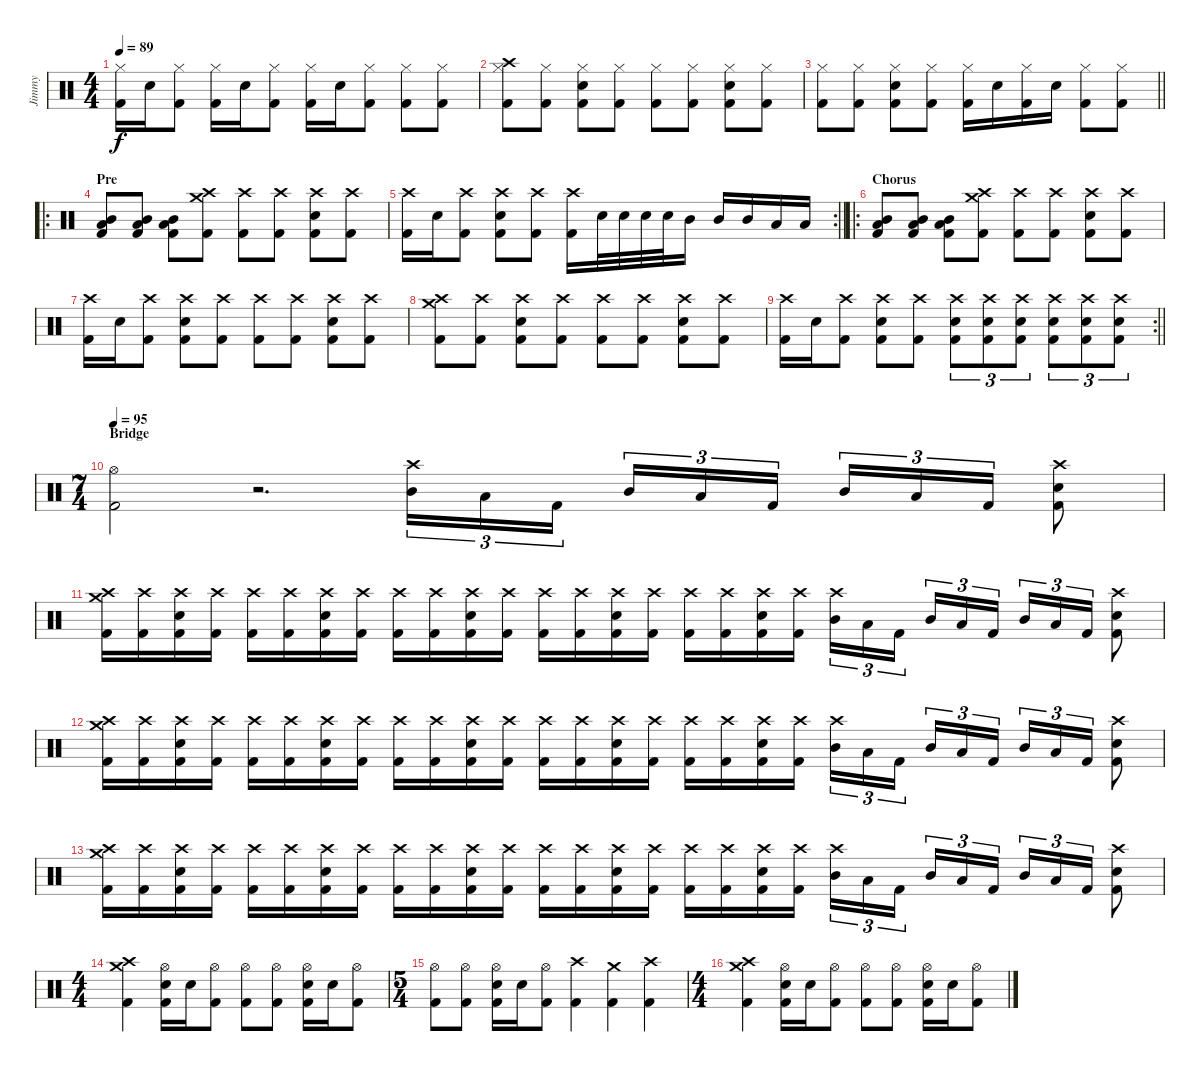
\track ("Jimmy" "Jimmy") {instrument percussion}
\staff {score}
\articulation defaults
\ts (4 4)
\tempo 89
\clef neutral
\ks c
("Kick (hit) 2" "Hi-Hat (closed)").16{dy f} "Electric Snare (hit)".16 ("Kick (hit) 2" "Hi-Hat (closed)").8 ("Kick (hit) 2" "Hi-Hat (closed)").16 "Electric Snare (hit)".16 ("Kick (hit) 2" "Hi-Hat (closed)").8 ("Kick (hit) 2" "Hi-Hat (closed)").16 "Electric Snare (hit)".16 ("Kick (hit) 2" "Hi-Hat (closed)").8 ("Kick (hit) 2" "Hi-Hat (closed)").8 ("Kick (hit) 2" "Hi-Hat (closed)").8 |
("Kick (hit) 2" "Hi-Hat (closed)" "Crash high (hit)").8 ("Kick (hit) 2" "Hi-Hat (closed)").8 ("Kick (hit) 2" "Hi-Hat (closed)" "Electric Snare (hit)").8 ("Kick (hit) 2" "Hi-Hat (closed)").8 ("Kick (hit) 2" "Hi-Hat (closed)").8 ("Kick (hit) 2" "Hi-Hat (closed)").8 ("Kick (hit) 2" "Hi-Hat (closed)" "Electric Snare (hit)").8 ("Kick (hit) 2" "Hi-Hat (closed)").8 |
\barLineRight lightlight
("Kick (hit) 2" "Hi-Hat (closed)").8 ("Kick (hit) 2" "Hi-Hat (closed)").8 ("Kick (hit) 2" "Hi-Hat (closed)" "Electric Snare (hit)").8 ("Kick (hit) 2" "Hi-Hat (closed)").8 ("Kick (hit) 2" "Hi-Hat (closed)").16 "Electric Snare (hit)".16 ("Kick (hit) 2" "Hi-Hat (closed)").16 "Electric Snare (hit)".16 ("Kick (hit) 2" "Hi-Hat (closed)").8 ("Kick (hit) 2" "Hi-Hat (closed)").8 |
\ro
\section ("" "Pre")
("Low Tom (hit)" "Kick (hit) 2" "Mid Tom (hit)").8 ("Low Tom (hit)" "Kick (hit) 2" "Mid Tom (hit)").8 ("Low Tom (hit)" "Kick (hit) 2" "Mid Tom (hit)").8 ("Kick (hit) 2" "Crash high (hit)" "Crash medium (hit)").8 ("Kick (hit) 2" "Crash high (hit)").8 ("Kick (hit) 2" "Crash high (hit)").8 ("Kick (hit) 2" "Crash high (hit)" "Electric Snare (hit)").8 ("Kick (hit) 2" "Crash high (hit)").8 |
\rc 2
\barLineRight lightlight
("Kick (hit) 2" "Crash high (hit)").16 "Electric Snare (hit)".16 ("Kick (hit) 2" "Crash high (hit)").8 ("Kick (hit) 2" "Crash high (hit)" "Electric Snare (hit)").8 ("Kick (hit) 2" "Crash high (hit)").8 ("Kick (hit) 2" "Crash high (hit)").16 "Electric Snare (hit)".32 "Electric Snare (hit)".32 "Electric Snare (hit)".32 "Electric Snare (hit)".32 "Mid Tom (hit)".16 "Mid Tom (hit)".16 "Mid Tom (hit)".16 "Low Tom (hit)".16 "Low Tom (hit)".16 |
\ro
\section ("" "Chorus")
("Low Tom (hit)" "Kick (hit) 2" "Mid Tom (hit)").8 ("Low Tom (hit)" "Kick (hit) 2" "Mid Tom (hit)").8 ("Low Tom (hit)" "Kick (hit) 2" "Mid Tom (hit)").8 ("Kick (hit) 2" "Crash high (hit)" "Crash medium (hit)").8 ("Kick (hit) 2" "Crash high (hit)").8 ("Kick (hit) 2" "Crash high (hit)").8 ("Kick (hit) 2" "Crash high (hit)" "Electric Snare (hit)").8 ("Kick (hit) 2" "Crash high (hit)").8 |
("Kick (hit) 2" "Crash high (hit)").16 "Electric Snare (hit)".16 ("Kick (hit) 2" "Crash high (hit)").8 ("Kick (hit) 2" "Crash high (hit)" "Electric Snare (hit)").8 ("Kick (hit) 2" "Crash high (hit)").8 ("Kick (hit) 2" "Crash high (hit)").8 ("Kick (hit) 2" "Crash high (hit)").8 ("Kick (hit) 2" "Crash high (hit)" "Electric Snare (hit)").8 ("Kick (hit) 2" "Crash high (hit)").8 |
("Kick (hit) 2" "Crash high (hit)" "Crash medium (hit)").8 ("Kick (hit) 2" "Crash high (hit)").8 ("Kick (hit) 2" "Crash high (hit)" "Electric Snare (hit)").8 ("Kick (hit) 2" "Crash high (hit)").8 ("Kick (hit) 2" "Crash high (hit)").8 ("Kick (hit) 2" "Crash high (hit)").8 ("Kick (hit) 2" "Crash high (hit)" "Electric Snare (hit)").8 ("Kick (hit) 2" "Crash high (hit)").8 |
\rc 2
\barLineRight lightlight
("Kick (hit) 2" "Crash high (hit)").16 "Electric Snare (hit)".16 ("Kick (hit) 2" "Crash high (hit)").8 ("Kick (hit) 2" "Crash high (hit)" "Electric Snare (hit)").8 ("Kick (hit) 2" "Crash high (hit)").8 ("Kick (hit) 2" "Crash high (hit)" "Electric Snare (hit)").8{tu (3 2)} ("Kick (hit) 2" "Crash high (hit)" "Electric Snare (hit)").8{tu (3 2)} ("Kick (hit) 2" "Crash high (hit)" "Electric Snare (hit)").8{tu (3 2)} ("Kick (hit) 2" "Crash high (hit)" "Electric Snare (hit)").8{tu (3 2)} ("Kick (hit) 2" "Crash high (hit)" "Electric Snare (hit)").8{tu (3 2)} ("Kick (hit) 2" "Crash high (hit)" "Electric Snare (hit)").8{tu (3 2)} |
\ts (7 4)
\section ("" "Bridge")
\tempo 95
("Hi-Hat (open)" "Kick (hit) 2").2 r.2{d} ("Mid Tom (hit)" "Crash high (hit)").16{tu (3 2)} "Low Tom (hit)".16{tu (3 2)} "Kick (hit) 2".16{tu (3 2) beam splitsecondary} "Mid Tom (hit)".16{tu (3 2)} "Low Tom (hit)".16{tu (3 2)} "Kick (hit) 2".16{tu (3 2)} "Mid Tom (hit)".16{tu (3 2)} "Low Tom (hit)".16{tu (3 2)} "Kick (hit) 2".16{tu (3 2)} ("Crash high (hit)" "Electric Snare (hit)" "Kick (hit) 2").8 |
("Crash medium (hit)" "Crash high (hit)" "Kick (hit) 2").16 ("Crash high (hit)" "Kick (hit) 2").16 ("Crash high (hit)" "Kick (hit) 2" "Electric Snare (hit)").16 ("Crash high (hit)" "Kick (hit) 2").16 ("Crash high (hit)" "Kick (hit) 2").16 ("Crash high (hit)" "Kick (hit) 2").16 ("Crash high (hit)" "Kick (hit) 2" "Electric Snare (hit)").16 ("Crash high (hit)" "Kick (hit) 2").16 ("Crash high (hit)" "Kick (hit) 2").16 ("Crash high (hit)" "Kick (hit) 2").16 ("Crash high (hit)" "Kick (hit) 2" "Electric Snare (hit)").16 ("Crash high (hit)" "Kick (hit) 2").16 ("Crash high (hit)" "Kick (hit) 2").16 ("Crash high (hit)" "Kick (hit) 2").16 ("Crash high (hit)" "Kick (hit) 2" "Electric Snare (hit)").16 ("Crash high (hit)" "Kick (hit) 2").16 ("Crash high (hit)" "Kick (hit) 2").16 ("Crash high (hit)" "Kick (hit) 2").16 ("Crash high (hit)" "Kick (hit) 2" "Electric Snare (hit)").16 ("Crash high (hit)" "Kick (hit) 2").16 ("Mid Tom (hit)" "Crash high (hit)").16{tu (3 2)} "Low Tom (hit)".16{tu (3 2)} "Kick (hit) 2".16{tu (3 2) beam splitsecondary} "Mid Tom (hit)".16{tu (3 2)} "Low Tom (hit)".16{tu (3 2)} "Kick (hit) 2".16{tu (3 2)} "Mid Tom (hit)".16{tu (3 2)} "Low Tom (hit)".16{tu (3 2)} "Kick (hit) 2".16{tu (3 2)} ("Electric Snare (hit)" "Crash high (hit)" "Kick (hit) 2").8 |
("Crash medium (hit)" "Crash high (hit)" "Kick (hit) 2").16 ("Crash high (hit)" "Kick (hit) 2").16 ("Crash high (hit)" "Kick (hit) 2" "Electric Snare (hit)").16 ("Crash high (hit)" "Kick (hit) 2").16 ("Crash high (hit)" "Kick (hit) 2").16 ("Crash high (hit)" "Kick (hit) 2").16 ("Crash high (hit)" "Kick (hit) 2" "Electric Snare (hit)").16 ("Crash high (hit)" "Kick (hit) 2").16 ("Crash high (hit)" "Kick (hit) 2").16 ("Crash high (hit)" "Kick (hit) 2").16 ("Crash high (hit)" "Kick (hit) 2" "Electric Snare (hit)").16 ("Crash high (hit)" "Kick (hit) 2").16 ("Crash high (hit)" "Kick (hit) 2").16 ("Crash high (hit)" "Kick (hit) 2").16 ("Crash high (hit)" "Kick (hit) 2" "Electric Snare (hit)").16 ("Crash high (hit)" "Kick (hit) 2").16 ("Crash high (hit)" "Kick (hit) 2").16 ("Crash high (hit)" "Kick (hit) 2").16 ("Crash high (hit)" "Kick (hit) 2" "Electric Snare (hit)").16 ("Crash high (hit)" "Kick (hit) 2").16 ("Mid Tom (hit)" "Crash high (hit)").16{tu (3 2)} "Low Tom (hit)".16{tu (3 2)} "Kick (hit) 2".16{tu (3 2) beam splitsecondary} "Mid Tom (hit)".16{tu (3 2)} "Low Tom (hit)".16{tu (3 2)} "Kick (hit) 2".16{tu (3 2)} "Mid Tom (hit)".16{tu (3 2)} "Low Tom (hit)".16{tu (3 2)} "Kick (hit) 2".16{tu (3 2)} ("Electric Snare (hit)" "Crash high (hit)" "Kick (hit) 2").8 |
("Crash medium (hit)" "Crash high (hit)" "Kick (hit) 2").16 ("Crash high (hit)" "Kick (hit) 2").16 ("Crash high (hit)" "Kick (hit) 2" "Electric Snare (hit)").16 ("Crash high (hit)" "Kick (hit) 2").16 ("Crash high (hit)" "Kick (hit) 2").16 ("Crash high (hit)" "Kick (hit) 2").16 ("Crash high (hit)" "Kick (hit) 2" "Electric Snare (hit)").16 ("Crash high (hit)" "Kick (hit) 2").16 ("Crash high (hit)" "Kick (hit) 2").16 ("Crash high (hit)" "Kick (hit) 2").16 ("Crash high (hit)" "Kick (hit) 2" "Electric Snare (hit)").16 ("Crash high (hit)" "Kick (hit) 2").16 ("Crash high (hit)" "Kick (hit) 2").16 ("Crash high (hit)" "Kick (hit) 2").16 ("Crash high (hit)" "Kick (hit) 2" "Electric Snare (hit)").16 ("Crash high (hit)" "Kick (hit) 2").16 ("Crash high (hit)" "Kick (hit) 2").16 ("Crash high (hit)" "Kick (hit) 2").16 ("Crash high (hit)" "Kick (hit) 2" "Electric Snare (hit)").16 ("Crash high (hit)" "Kick (hit) 2").16 ("Mid Tom (hit)" "Crash high (hit)").16{tu (3 2)} "Low Tom (hit)".16{tu (3 2)} "Kick (hit) 2".16{tu (3 2) beam splitsecondary} "Mid Tom (hit)".16{tu (3 2)} "Low Tom (hit)".16{tu (3 2)} "Kick (hit) 2".16{tu (3 2)} "Mid Tom (hit)".16{tu (3 2)} "Low Tom (hit)".16{tu (3 2)} "Kick (hit) 2".16{tu (3 2)} ("Electric Snare (hit)" "Crash high (hit)" "Kick (hit) 2").8 |
\ts (4 4)
("Crash medium (hit)" "Crash high (hit)" "Kick (hit) 2").4 ("Kick (hit) 2" "Hi-Hat (open)" "Electric Snare (hit)").16 "Electric Snare (hit)".16 ("Kick (hit) 2" "Hi-Hat (open)").8 ("Kick (hit) 2" "Hi-Hat (open)").8 ("Kick (hit) 2" "Hi-Hat (open)").8 ("Kick (hit) 2" "Hi-Hat (open)" "Electric Snare (hit)").16 "Electric Snare (hit)".16 ("Kick (hit) 2" "Hi-Hat (open)").8 |
\ts (5 4)
("Kick (hit) 2" "Hi-Hat (open)").8 ("Kick (hit) 2" "Hi-Hat (open)").8 ("Kick (hit) 2" "Hi-Hat (open)" "Electric Snare (hit)").16 "Electric Snare (hit)".16 ("Kick (hit) 2" "Hi-Hat (open)").8 ("Crash high (hit)" "Kick (hit) 2").4 ("Crash medium (hit)" "Kick (hit) 2").4 ("Crash high (hit)" "Kick (hit) 2").4 |
\ts (4 4)
("Crash medium (hit)" "Crash high (hit)" "Kick (hit) 2").4 ("Kick (hit) 2" "Hi-Hat (open)" "Electric Snare (hit)").16 "Electric Snare (hit)".16 ("Kick (hit) 2" "Hi-Hat (open)").8 ("Kick (hit) 2" "Hi-Hat (open)").8 ("Kick (hit) 2" "Hi-Hat (open)").8 ("Kick (hit) 2" "Hi-Hat (open)" "Electric Snare (hit)").16 "Electric Snare (hit)".16 ("Kick (hit) 2" "Hi-Hat (open)").8
